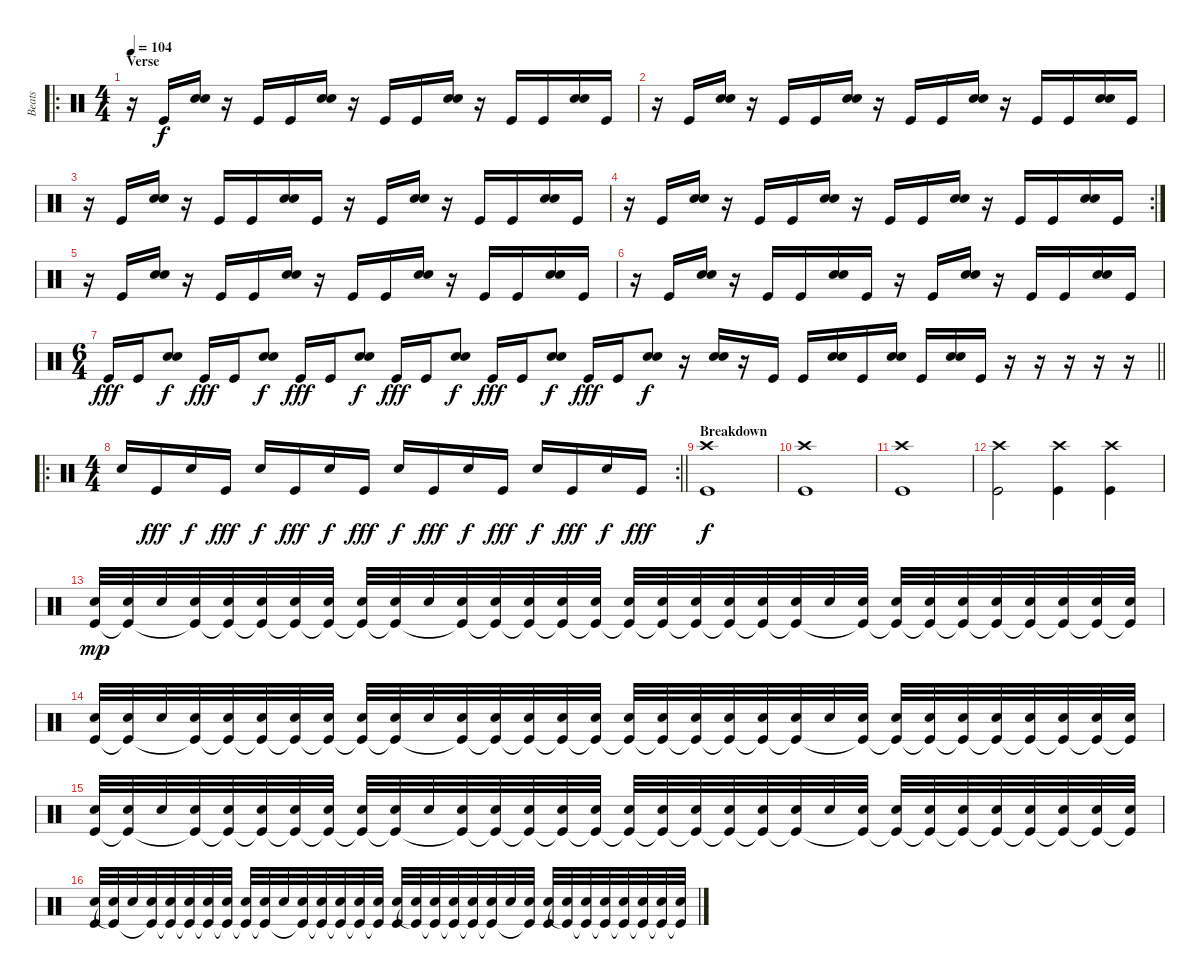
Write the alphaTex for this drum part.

\track ("Beats" "Beats") {instrument percussion}
\staff {score}
\articulation defaults
\ro
\ts (4 4)
\section ("" "Verse")
\tempo 104
\clef neutral
\ks c
r.16{dy f} "Kick (hit)".16 ("Snare (hit) 2" "Snare (hit) 2").16 r.16 "Kick (hit)".16 "Kick (hit)".16 ("Snare (hit) 2" "Snare (hit) 2").16 r.16 "Kick (hit)".16 "Kick (hit)".16 ("Snare (hit) 2" "Snare (hit) 2").16 r.16 "Kick (hit)".16 "Kick (hit)".16 ("Snare (hit) 2" "Snare (hit) 2").16 "Kick (hit)".16 |
r.16 "Kick (hit)".16 ("Snare (hit) 2" "Snare (hit) 2").16 r.16 "Kick (hit)".16 "Kick (hit)".16 ("Snare (hit) 2" "Snare (hit) 2").16 r.16 "Kick (hit)".16 "Kick (hit)".16 ("Snare (hit) 2" "Snare (hit) 2").16 r.16 "Kick (hit)".16 "Kick (hit)".16 ("Snare (hit) 2" "Snare (hit) 2").16 "Kick (hit)".16 |
r.16 "Kick (hit)".16 ("Snare (hit) 2" "Snare (hit) 2").16 r.16 "Kick (hit)".16 "Kick (hit)".16 ("Snare (hit) 2" "Snare (hit) 2").16 "Kick (hit)".16 r.16 "Kick (hit)".16 ("Snare (hit) 2" "Snare (hit) 2").16 r.16 "Kick (hit)".16 "Kick (hit)".16 ("Snare (hit) 2" "Snare (hit) 2").16 "Kick (hit)".16 |
\rc 2
r.16 "Kick (hit)".16 ("Snare (hit) 2" "Snare (hit) 2").16 r.16 "Kick (hit)".16 "Kick (hit)".16 ("Snare (hit) 2" "Snare (hit) 2").16 r.16 "Kick (hit)".16 "Kick (hit)".16 ("Snare (hit) 2" "Snare (hit) 2").16 r.16 "Kick (hit)".16 "Kick (hit)".16 ("Snare (hit) 2" "Snare (hit) 2").16 "Kick (hit)".16 |
r.16 "Kick (hit)".16 ("Snare (hit) 2" "Snare (hit) 2").16 r.16 "Kick (hit)".16 "Kick (hit)".16 ("Snare (hit) 2" "Snare (hit) 2").16 r.16 "Kick (hit)".16 "Kick (hit)".16 ("Snare (hit) 2" "Snare (hit) 2").16 r.16 "Kick (hit)".16 "Kick (hit)".16 ("Snare (hit) 2" "Snare (hit) 2").16 "Kick (hit)".16 |
r.16 "Kick (hit)".16 ("Snare (hit) 2" "Snare (hit) 2").16 r.16 "Kick (hit)".16 "Kick (hit)".16 ("Snare (hit) 2" "Snare (hit) 2").16 "Kick (hit)".16 r.16 "Kick (hit)".16 ("Snare (hit) 2" "Snare (hit) 2").16 r.16 "Kick (hit)".16 "Kick (hit)".16 ("Snare (hit) 2" "Snare (hit) 2").16 "Kick (hit)".16 |
\ts (6 4)
\barLineRight lightlight "Kick (hit)".16{dy fff} "Kick (hit)".16
("Snare (hit) 2" "Snare (hit) 2").8{dy f} "Kick (hit)".16{dy fff} "Kick (hit)".16 ("Snare (hit) 2" "Snare (hit) 2").8{dy f} "Kick (hit)".16{dy fff} "Kick (hit)".16 ("Snare (hit) 2" "Snare (hit) 2").8{dy f} "Kick (hit)".16{dy fff} "Kick (hit)".16 ("Snare (hit) 2" "Snare (hit) 2").8{dy f} "Kick (hit)".16{dy fff} "Kick (hit)".16 ("Snare (hit) 2" "Snare (hit) 2").8{dy f} "Kick (hit)".16{dy fff} "Kick (hit)".16 ("Snare (hit) 2" "Snare (hit) 2").8{dy f} r.16 ("Snare (hit) 2" "Snare (hit) 2").16 r.16 "Kick (hit)".16 "Kick (hit)".16 ("Snare (hit) 2" "Snare (hit) 2").16 "Kick (hit)".16 ("Snare (hit) 2" "Snare (hit) 2").16 "Kick (hit)".16 ("Snare (hit) 2" "Snare (hit) 2").16 "Kick (hit)".16 r.16 r.16 r.16 r.16 r.16 |
\ro
\rc 2
\ts (4 4)
\barLineRight lightlight "Snare (hit) 2".16 "Kick (hit)".16{dy fff} "Snare (hit) 2".16{dy f} "Kick (hit)".16{dy fff} "Snare (hit) 2".16{dy f} "Kick (hit)".16{dy fff} "Snare (hit) 2".16{dy f} "Kick (hit)".16{dy fff} "Snare (hit) 2".16{dy f} "Kick (hit)".16{dy fff} "Snare (hit) 2".16{dy f} "Kick (hit)".16{dy fff} "Snare (hit) 2".16{dy f} "Kick (hit)".16{dy fff} "Snare (hit) 2".16{dy f} "Kick (hit)".16{dy fff}
|
\section ("" "Breakdown")
("Kick (hit)" "Crash high (hit)").1{dy f} |
("Kick (hit)" "Crash high (hit)").1 |
("Kick (hit)" "Crash high (hit)").1 |
("Kick (hit)" "Crash high (hit)").2 ("Kick (hit)" "Crash high (hit)").4 ("Kick (hit)" "Crash high (hit)").4 |
("Snare (hit) 2" "Kick (hit)").32{dy mp} ("Snare (hit) 2" "Kick (hit)"{t}).32 "Snare (hit) 2".32 ("Snare (hit) 2" "Kick (hit)"{t}).32 ("Snare (hit) 2" "Kick (hit)"{t}).32 ("Snare (hit) 2" "Kick (hit)"{t}).32 ("Snare (hit) 2" "Kick (hit)"{t}).32 ("Snare (hit) 2" "Kick (hit)"{t}).32 ("Snare (hit) 2" "Kick (hit)"{t}).32 ("Snare (hit) 2" "Kick (hit)"{t}).32 "Snare (hit) 2".32 ("Snare (hit) 2" "Kick (hit)"{t}).32 ("Snare (hit) 2" "Kick (hit)"{t}).32 ("Snare (hit) 2" "Kick (hit)"{t}).32 ("Snare (hit) 2" "Kick (hit)"{t}).32 ("Snare (hit) 2" "Kick (hit)"{t}).32 ("Snare (hit) 2" "Kick (hit)"{t}).32 ("Snare (hit) 2" "Kick (hit)"{t}).32 ("Snare (hit) 2" "Kick (hit)"{t}).32 ("Snare (hit) 2" "Kick (hit)"{t}).32 ("Snare (hit) 2" "Kick (hit)"{t}).32 ("Snare (hit) 2" "Kick (hit)"{t}).32 "Snare (hit) 2".32 ("Snare (hit) 2" "Kick (hit)"{t}).32 ("Snare (hit) 2" "Kick (hit)"{t}).32 ("Snare (hit) 2" "Kick (hit)"{t}).32 ("Snare (hit) 2" "Kick (hit)"{t}).32 ("Snare (hit) 2" "Kick (hit)"{t}).32 ("Snare (hit) 2" "Kick (hit)"{t}).32 ("Snare (hit) 2" "Kick (hit)"{t}).32 ("Snare (hit) 2" "Kick (hit)"{t}).32 ("Snare (hit) 2" "Kick (hit)"{t}).32 |
("Snare (hit) 2" "Kick (hit)").32 ("Snare (hit) 2" "Kick (hit)"{t}).32 "Snare (hit) 2".32 ("Snare (hit) 2" "Kick (hit)"{t}).32 ("Snare (hit) 2" "Kick (hit)"{t}).32 ("Snare (hit) 2" "Kick (hit)"{t}).32 ("Snare (hit) 2" "Kick (hit)"{t}).32 ("Snare (hit) 2" "Kick (hit)"{t}).32 ("Snare (hit) 2" "Kick (hit)"{t}).32 ("Snare (hit) 2" "Kick (hit)"{t}).32 "Snare (hit) 2".32 ("Snare (hit) 2" "Kick (hit)"{t}).32 ("Snare (hit) 2" "Kick (hit)"{t}).32 ("Snare (hit) 2" "Kick (hit)"{t}).32 ("Snare (hit) 2" "Kick (hit)"{t}).32 ("Snare (hit) 2" "Kick (hit)"{t}).32 ("Snare (hit) 2" "Kick (hit)"{t}).32 ("Snare (hit) 2" "Kick (hit)"{t}).32 ("Snare (hit) 2" "Kick (hit)"{t}).32 ("Snare (hit) 2" "Kick (hit)"{t}).32 ("Snare (hit) 2" "Kick (hit)"{t}).32 ("Snare (hit) 2" "Kick (hit)"{t}).32 "Snare (hit) 2".32 ("Snare (hit) 2" "Kick (hit)"{t}).32 ("Snare (hit) 2" "Kick (hit)"{t}).32 ("Snare (hit) 2" "Kick (hit)"{t}).32 ("Snare (hit) 2" "Kick (hit)"{t}).32 ("Snare (hit) 2" "Kick (hit)"{t}).32 ("Snare (hit) 2" "Kick (hit)"{t}).32 ("Snare (hit) 2" "Kick (hit)"{t}).32 ("Snare (hit) 2" "Kick (hit)"{t}).32 ("Snare (hit) 2" "Kick (hit)"{t}).32 |
("Snare (hit) 2" "Kick (hit)").32 ("Snare (hit) 2" "Kick (hit)"{t}).32 "Snare (hit) 2".32 ("Snare (hit) 2" "Kick (hit)"{t}).32 ("Snare (hit) 2" "Kick (hit)"{t}).32 ("Snare (hit) 2" "Kick (hit)"{t}).32 ("Snare (hit) 2" "Kick (hit)"{t}).32 ("Snare (hit) 2" "Kick (hit)"{t}).32 ("Snare (hit) 2" "Kick (hit)"{t}).32 ("Snare (hit) 2" "Kick (hit)"{t}).32 "Snare (hit) 2".32 ("Snare (hit) 2" "Kick (hit)"{t}).32 ("Snare (hit) 2" "Kick (hit)"{t}).32 ("Snare (hit) 2" "Kick (hit)"{t}).32 ("Snare (hit) 2" "Kick (hit)"{t}).32 ("Snare (hit) 2" "Kick (hit)"{t}).32 ("Snare (hit) 2" "Kick (hit)"{t}).32 ("Snare (hit) 2" "Kick (hit)"{t}).32 ("Snare (hit) 2" "Kick (hit)"{t}).32 ("Snare (hit) 2" "Kick (hit)"{t}).32 ("Snare (hit) 2" "Kick (hit)"{t}).32 ("Snare (hit) 2" "Kick (hit)"{t}).32 "Snare (hit) 2".32 ("Snare (hit) 2" "Kick (hit)"{t}).32 ("Snare (hit) 2" "Kick (hit)"{t}).32 ("Snare (hit) 2" "Kick (hit)"{t}).32 ("Snare (hit) 2" "Kick (hit)"{t}).32 ("Snare (hit) 2" "Kick (hit)"{t}).32 ("Snare (hit) 2" "Kick (hit)"{t}).32 ("Snare (hit) 2" "Kick (hit)"{t}).32 ("Snare (hit) 2" "Kick (hit)"{t}).32 ("Snare (hit) 2" "Kick (hit)"{t}).32 |
("Kick (hit)" "Snare (hit) 2").32 ("Snare (hit) 2" "Kick (hit)"{t}).32 "Snare (hit) 2".32 ("Snare (hit) 2" "Kick (hit)"{t}).32 ("Snare (hit) 2" "Kick (hit)"{t}).32 ("Snare (hit) 2" "Kick (hit)"{t}).32 ("Snare (hit) 2" "Kick (hit)"{t}).32 ("Snare (hit) 2" "Kick (hit)"{t}).32 ("Snare (hit) 2" "Kick (hit)"{t}).32 ("Snare (hit) 2" "Kick (hit)"{t}).32 "Snare (hit) 2".32 ("Snare (hit) 2" "Kick (hit)"{t}).32 ("Snare (hit) 2" "Kick (hit)"{t}).32 ("Snare (hit) 2" "Kick (hit)"{t}).32 ("Snare (hit) 2" "Kick (hit)"{t}).32 ("Snare (hit) 2" "Kick (hit)"{t}).32 ("Kick (hit)" "Snare (hit) 2").32 ("Snare (hit) 2" "Kick (hit)"{t}).32 ("Snare (hit) 2" "Kick (hit)"{t}).32 ("Snare (hit) 2" "Kick (hit)"{t}).32 ("Snare (hit) 2" "Kick (hit)"{t}).32 ("Snare (hit) 2" "Kick (hit)"{t}).32 "Snare (hit) 2".32 ("Snare (hit) 2" "Kick (hit)"{t}).32 ("Kick (hit)" "Snare (hit) 2").32 ("Snare (hit) 2" "Kick (hit)"{t}).32 ("Snare (hit) 2" "Kick (hit)"{t}).32 ("Snare (hit) 2" "Kick (hit)"{t}).32 ("Snare (hit) 2" "Kick (hit)"{t}).32 ("Snare (hit) 2" "Kick (hit)"{t}).32 ("Snare (hit) 2" "Kick (hit)"{t}).32 ("Snare (hit) 2" "Kick (hit)"{t}).32
